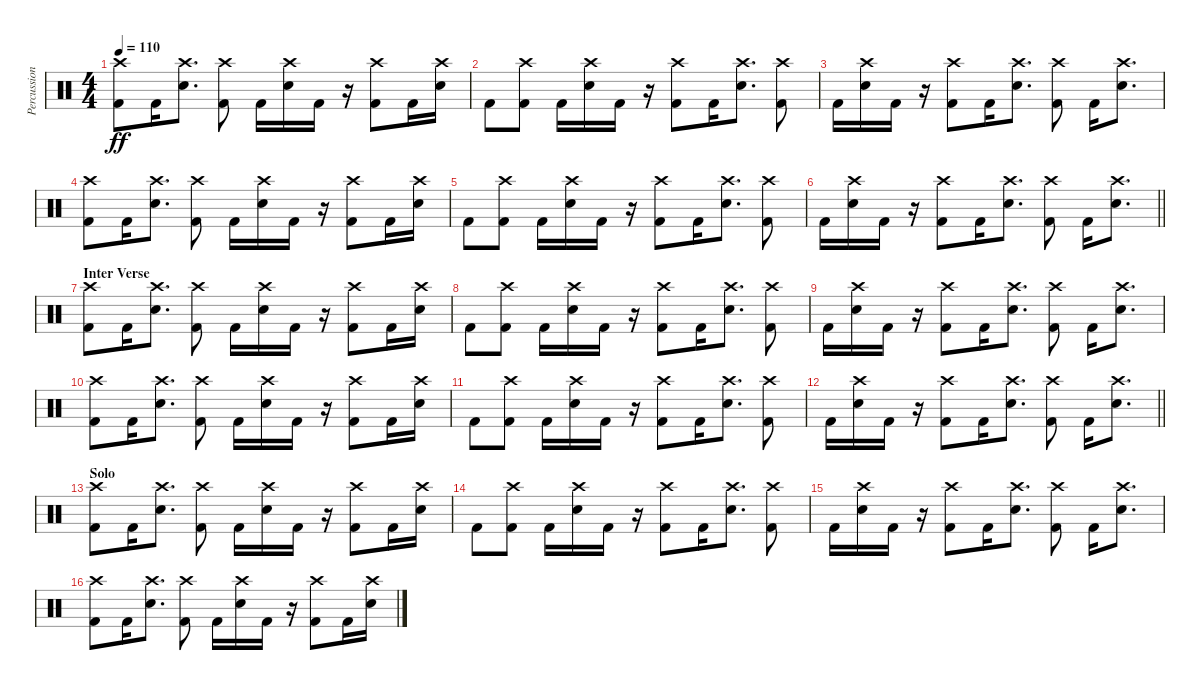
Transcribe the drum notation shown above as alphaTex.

\track ("Percussions" "Percussion") {instrument percussion}
\staff {score}
\articulation defaults
\ts (4 4)
\tempo 110
\clef neutral
\ks c
("Crash high (hit)" "Kick (hit) 2").8{dy ff} "Kick (hit) 2".16 ("Crash high (hit)" "Electric Snare (hit)").8{d} ("Crash high (hit)" "Kick (hit) 2").8 "Kick (hit) 2".16 ("Crash high (hit)" "Electric Snare (hit)").16 "Kick (hit) 2".16 r.16 ("Crash high (hit)" "Kick (hit) 2").8 "Kick (hit) 2".16 ("Crash high (hit)" "Electric Snare (hit)").16 |
"Kick (hit) 2".8 ("Crash high (hit)" "Kick (hit) 2").8 "Kick (hit) 2".16 ("Crash high (hit)" "Electric Snare (hit)").16 "Kick (hit) 2".16 r.16 ("Crash high (hit)" "Kick (hit) 2").8 "Kick (hit) 2".16 ("Crash high (hit)" "Electric Snare (hit)").8{d} ("Crash high (hit)" "Kick (hit) 2").8 |
"Kick (hit) 2".16 ("Crash high (hit)" "Electric Snare (hit)").16 "Kick (hit) 2".16 r.16 ("Crash high (hit)" "Kick (hit) 2").8 "Kick (hit) 2".16 ("Crash high (hit)" "Electric Snare (hit)").8{d} ("Crash high (hit)" "Kick (hit) 2").8 "Kick (hit) 2".16 ("Crash high (hit)" "Electric Snare (hit)").8{d} |
("Crash high (hit)" "Kick (hit) 2").8 "Kick (hit) 2".16 ("Crash high (hit)" "Electric Snare (hit)").8{d} ("Crash high (hit)" "Kick (hit) 2").8 "Kick (hit) 2".16 ("Crash high (hit)" "Electric Snare (hit)").16 "Kick (hit) 2".16 r.16 ("Crash high (hit)" "Kick (hit) 2").8 "Kick (hit) 2".16 ("Crash high (hit)" "Electric Snare (hit)").16 |
"Kick (hit) 2".8 ("Crash high (hit)" "Kick (hit) 2").8 "Kick (hit) 2".16 ("Crash high (hit)" "Electric Snare (hit)").16 "Kick (hit) 2".16 r.16 ("Crash high (hit)" "Kick (hit) 2").8 "Kick (hit) 2".16 ("Crash high (hit)" "Electric Snare (hit)").8{d} ("Crash high (hit)" "Kick (hit) 2").8 |
\barLineRight lightlight "Kick (hit) 2".16
("Crash high (hit)" "Electric Snare (hit)").16 "Kick (hit) 2".16 r.16 ("Crash high (hit)" "Kick (hit) 2").8 "Kick (hit) 2".16 ("Crash high (hit)" "Electric Snare (hit)").8{d} ("Crash high (hit)" "Kick (hit) 2").8 "Kick (hit) 2".16 ("Crash high (hit)" "Electric Snare (hit)").8{d} |
\section ("" "Inter Verse")
("Crash high (hit)" "Kick (hit) 2").8 "Kick (hit) 2".16 ("Crash high (hit)" "Electric Snare (hit)").8{d} ("Crash high (hit)" "Kick (hit) 2").8 "Kick (hit) 2".16 ("Crash high (hit)" "Electric Snare (hit)").16 "Kick (hit) 2".16 r.16 ("Crash high (hit)" "Kick (hit) 2").8 "Kick (hit) 2".16 ("Crash high (hit)" "Electric Snare (hit)").16 |
"Kick (hit) 2".8 ("Crash high (hit)" "Kick (hit) 2").8 "Kick (hit) 2".16 ("Crash high (hit)" "Electric Snare (hit)").16 "Kick (hit) 2".16 r.16 ("Crash high (hit)" "Kick (hit) 2").8 "Kick (hit) 2".16 ("Crash high (hit)" "Electric Snare (hit)").8{d} ("Crash high (hit)" "Kick (hit) 2").8 |
"Kick (hit) 2".16 ("Crash high (hit)" "Electric Snare (hit)").16 "Kick (hit) 2".16 r.16 ("Crash high (hit)" "Kick (hit) 2").8 "Kick (hit) 2".16 ("Crash high (hit)" "Electric Snare (hit)").8{d} ("Crash high (hit)" "Kick (hit) 2").8 "Kick (hit) 2".16 ("Crash high (hit)" "Electric Snare (hit)").8{d} |
("Crash high (hit)" "Kick (hit) 2").8 "Kick (hit) 2".16 ("Crash high (hit)" "Electric Snare (hit)").8{d} ("Crash high (hit)" "Kick (hit) 2").8 "Kick (hit) 2".16 ("Crash high (hit)" "Electric Snare (hit)").16 "Kick (hit) 2".16 r.16 ("Crash high (hit)" "Kick (hit) 2").8 "Kick (hit) 2".16 ("Crash high (hit)" "Electric Snare (hit)").16 |
"Kick (hit) 2".8 ("Crash high (hit)" "Kick (hit) 2").8 "Kick (hit) 2".16 ("Crash high (hit)" "Electric Snare (hit)").16 "Kick (hit) 2".16 r.16 ("Crash high (hit)" "Kick (hit) 2").8 "Kick (hit) 2".16 ("Crash high (hit)" "Electric Snare (hit)").8{d} ("Crash high (hit)" "Kick (hit) 2").8 |
\barLineRight lightlight "Kick (hit) 2".16
("Crash high (hit)" "Electric Snare (hit)").16 "Kick (hit) 2".16 r.16 ("Crash high (hit)" "Kick (hit) 2").8 "Kick (hit) 2".16 ("Crash high (hit)" "Electric Snare (hit)").8{d} ("Crash high (hit)" "Kick (hit) 2").8 "Kick (hit) 2".16 ("Crash high (hit)" "Electric Snare (hit)").8{d} |
\section ("" "Solo")
("Crash high (hit)" "Kick (hit) 2").8 "Kick (hit) 2".16 ("Crash high (hit)" "Electric Snare (hit)").8{d} ("Crash high (hit)" "Kick (hit) 2").8 "Kick (hit) 2".16 ("Crash high (hit)" "Electric Snare (hit)").16 "Kick (hit) 2".16 r.16 ("Crash high (hit)" "Kick (hit) 2").8 "Kick (hit) 2".16 ("Crash high (hit)" "Electric Snare (hit)").16 |
"Kick (hit) 2".8 ("Crash high (hit)" "Kick (hit) 2").8 "Kick (hit) 2".16 ("Crash high (hit)" "Electric Snare (hit)").16 "Kick (hit) 2".16 r.16 ("Crash high (hit)" "Kick (hit) 2").8 "Kick (hit) 2".16 ("Crash high (hit)" "Electric Snare (hit)").8{d} ("Crash high (hit)" "Kick (hit) 2").8 |
"Kick (hit) 2".16 ("Crash high (hit)" "Electric Snare (hit)").16 "Kick (hit) 2".16 r.16 ("Crash high (hit)" "Kick (hit) 2").8 "Kick (hit) 2".16 ("Crash high (hit)" "Electric Snare (hit)").8{d} ("Crash high (hit)" "Kick (hit) 2").8 "Kick (hit) 2".16 ("Crash high (hit)" "Electric Snare (hit)").8{d} |
("Crash high (hit)" "Kick (hit) 2").8 "Kick (hit) 2".16 ("Crash high (hit)" "Electric Snare (hit)").8{d} ("Crash high (hit)" "Kick (hit) 2").8 "Kick (hit) 2".16 ("Crash high (hit)" "Electric Snare (hit)").16 "Kick (hit) 2".16 r.16 ("Crash high (hit)" "Kick (hit) 2").8 "Kick (hit) 2".16 ("Crash high (hit)" "Electric Snare (hit)").16
